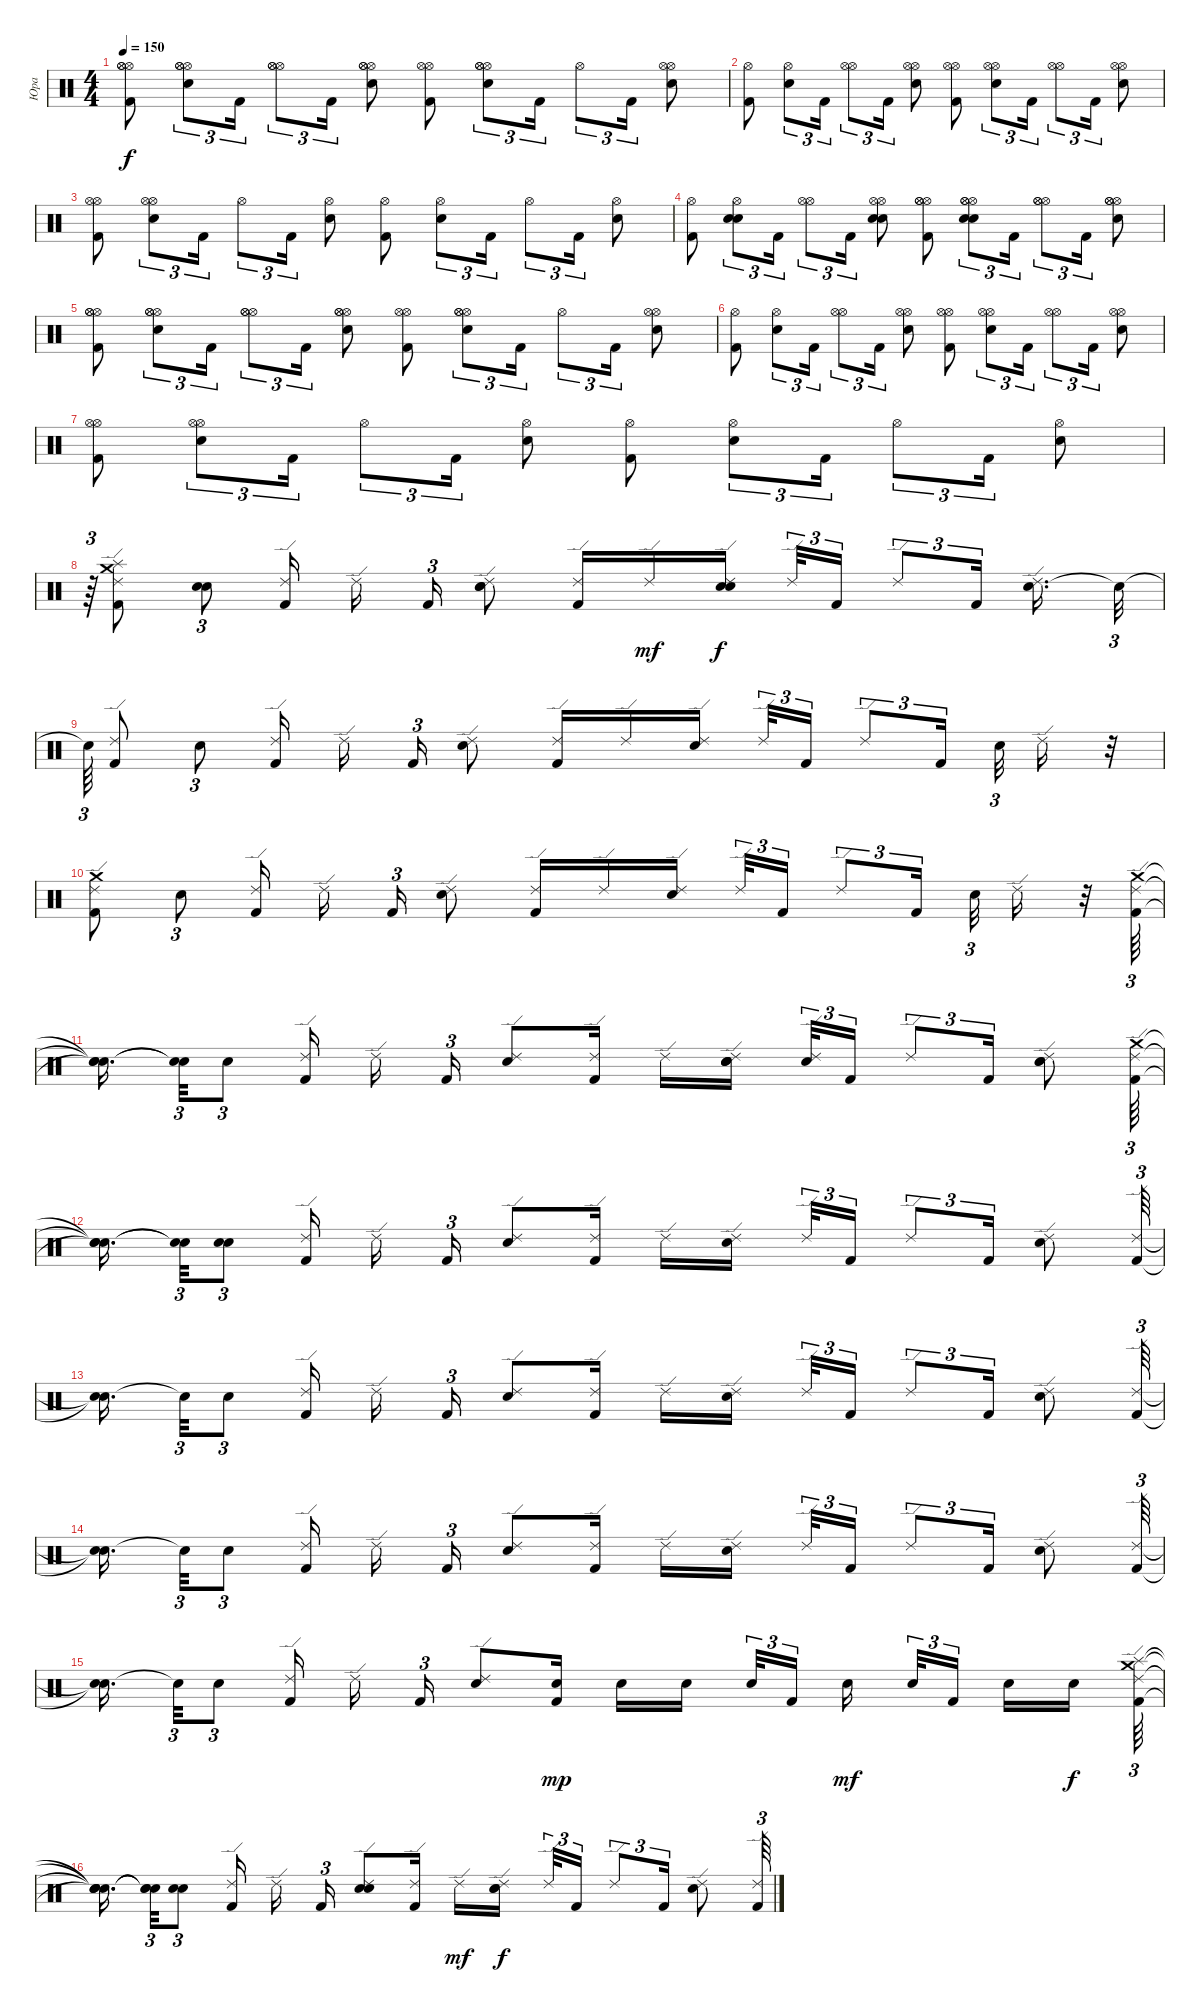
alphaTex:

\track ("Юра" "Юра") {instrument percussion}
\staff {score}
\articulation defaults
\ts (4 4)
\tempo 150
\clef neutral
\ks c
("Kick (hit) 2" "Hi-Hat (open)" "Hi-Hat (open)" "Hi-Hat (open)").8{dy f} ("Hi-Hat (open)" "Hi-Hat (open)" "Hi-Hat (open)" "Electric Snare (hit)").8{tu (3 2)} "Kick (hit) 2".16{tu (3 2)} ("Hi-Hat (open)" "Hi-Hat (open)" "Hi-Hat (open)").8{tu (3 2)} "Kick (hit) 2".16{tu (3 2)} ("Hi-Hat (open)" "Hi-Hat (open)" "Hi-Hat (open)" "Electric Snare (hit)").8 ("Kick (hit) 2" "Hi-Hat (open)" "Hi-Hat (open)").8 ("Electric Snare (hit)" "Hi-Hat (open)" "Hi-Hat (open)" "Hi-Hat (open)").8{tu (3 2)} "Kick (hit) 2".16{tu (3 2)} "Hi-Hat (open)".8{tu (3 2)} "Kick (hit) 2".16{tu (3 2)} ("Hi-Hat (open)" "Hi-Hat (open)" "Electric Snare (hit)").8 |
("Kick (hit) 2" "Hi-Hat (open)").8 ("Electric Snare (hit)" "Hi-Hat (open)").8{tu (3 2)} "Kick (hit) 2".16{tu (3 2)} ("Hi-Hat (open)" "Hi-Hat (open)").8{tu (3 2)} "Kick (hit) 2".16{tu (3 2)} ("Hi-Hat (open)" "Electric Snare (hit)" "Hi-Hat (open)").8 ("Kick (hit) 2" "Hi-Hat (open)" "Hi-Hat (open)").8 ("Hi-Hat (open)" "Hi-Hat (open)" "Electric Snare (hit)").8{tu (3 2)} "Kick (hit) 2".16{tu (3 2)} ("Hi-Hat (open)" "Hi-Hat (open)").8{tu (3 2)} "Kick (hit) 2".16{tu (3 2)} ("Hi-Hat (open)" "Electric Snare (hit)" "Hi-Hat (open)").8 |
("Kick (hit) 2" "Hi-Hat (open)" "Hi-Hat (open)").8 ("Electric Snare (hit)" "Hi-Hat (open)" "Hi-Hat (open)").8{tu (3 2)} "Kick (hit) 2".16{tu (3 2)} "Hi-Hat (open)".8{tu (3 2)} "Kick (hit) 2".16{tu (3 2)} ("Electric Snare (hit)" "Hi-Hat (open)").8 ("Hi-Hat (open)" "Kick (hit) 2").8 ("Hi-Hat (open)" "Electric Snare (hit)").8{tu (3 2)} "Kick (hit) 2".16{tu (3 2)} "Hi-Hat (open)".8{tu (3 2)} "Kick (hit) 2".16{tu (3 2)} ("Electric Snare (hit)" "Hi-Hat (open)").8 |
("Kick (hit) 2" "Hi-Hat (open)").8 ("Electric Snare (hit)" "Hi-Hat (open)" "Electric Snare (hit)").8{tu (3 2)} "Kick (hit) 2".16{tu (3 2)} ("Hi-Hat (open)" "Hi-Hat (open)").8{tu (3 2)} "Kick (hit) 2".16{tu (3 2)} ("Hi-Hat (open)" "Hi-Hat (open)" "Electric Snare (hit)" "Electric Snare (hit)").8 ("Kick (hit) 2" "Hi-Hat (open)" "Hi-Hat (open)" "Hi-Hat (open)").8 ("Hi-Hat (open)" "Hi-Hat (open)" "Hi-Hat (open)" "Electric Snare (hit)" "Electric Snare (hit)").8{tu (3 2)} "Kick (hit) 2".16{tu (3 2)} ("Hi-Hat (open)" "Hi-Hat (open)" "Hi-Hat (open)").8{tu (3 2)} "Kick (hit) 2".16{tu (3 2)} ("Hi-Hat (open)" "Electric Snare (hit)" "Hi-Hat (open)" "Hi-Hat (open)").8 |
("Kick (hit) 2" "Hi-Hat (open)" "Hi-Hat (open)" "Hi-Hat (open)").8 ("Hi-Hat (open)" "Hi-Hat (open)" "Hi-Hat (open)" "Electric Snare (hit)").8{tu (3 2)} "Kick (hit) 2".16{tu (3 2)} ("Hi-Hat (open)" "Hi-Hat (open)" "Hi-Hat (open)").8{tu (3 2)} "Kick (hit) 2".16{tu (3 2)} ("Hi-Hat (open)" "Hi-Hat (open)" "Hi-Hat (open)" "Electric Snare (hit)").8 ("Kick (hit) 2" "Hi-Hat (open)" "Hi-Hat (open)").8 ("Electric Snare (hit)" "Hi-Hat (open)" "Hi-Hat (open)" "Hi-Hat (open)").8{tu (3 2)} "Kick (hit) 2".16{tu (3 2)} "Hi-Hat (open)".8{tu (3 2)} "Kick (hit) 2".16{tu (3 2)} ("Hi-Hat (open)" "Hi-Hat (open)" "Electric Snare (hit)").8 |
("Kick (hit) 2" "Hi-Hat (open)").8 ("Electric Snare (hit)" "Hi-Hat (open)").8{tu (3 2)} "Kick (hit) 2".16{tu (3 2)} ("Hi-Hat (open)" "Hi-Hat (open)").8{tu (3 2)} "Kick (hit) 2".16{tu (3 2)} ("Hi-Hat (open)" "Electric Snare (hit)" "Hi-Hat (open)").8 ("Kick (hit) 2" "Hi-Hat (open)" "Hi-Hat (open)").8 ("Hi-Hat (open)" "Hi-Hat (open)" "Electric Snare (hit)").8{tu (3 2)} "Kick (hit) 2".16{tu (3 2)} ("Hi-Hat (open)" "Hi-Hat (open)").8{tu (3 2)} "Kick (hit) 2".16{tu (3 2)} ("Hi-Hat (open)" "Electric Snare (hit)" "Hi-Hat (open)").8 |
("Kick (hit) 2" "Hi-Hat (open)" "Hi-Hat (open)").8 ("Electric Snare (hit)" "Hi-Hat (open)" "Hi-Hat (open)").8{tu (3 2)} "Kick (hit) 2".16{tu (3 2)} "Hi-Hat (open)".8{tu (3 2)} "Kick (hit) 2".16{tu (3 2)} ("Electric Snare (hit)" "Hi-Hat (open)").8 ("Hi-Hat (open)" "Kick (hit) 2").8 ("Hi-Hat (open)" "Electric Snare (hit)").8{tu (3 2)} "Kick (hit) 2".16{tu (3 2)} "Hi-Hat (open)".8{tu (3 2)} "Kick (hit) 2".16{tu (3 2)} ("Electric Snare (hit)" "Hi-Hat (open)").8 |
r.64{tu (3 2)} ("Ride (edge) 2" "Crash medium (hit)" "Kick (hit) 2" "Splash (hit)").8 ("Electric Snare (hit)" "Electric Snare (hit)").8{tu (3 2)} ("Ride (edge) 2" "Kick (hit) 2").16 "Ride (edge) 2".16{beam splitsecondary} "Kick (hit) 2".16{tu (3 2)} ("Ride (edge) 2" "Electric Snare (hit)" "Electric Snare (hit)").8 ("Ride (edge) 2" "Kick (hit) 2").16 "Ride (edge) 2".16{dy mf} ("Ride (edge) 2" "Electric Snare (hit)" "Electric Snare (hit)").16{dy f beam splitsecondary} "Ride (edge) 2".32{tu (3 2)} "Kick (hit) 2".16{tu (3 2)} "Ride (edge) 2".8{tu (3 2)} "Kick (hit) 2".16{tu (3 2) beam splitsecondary} ("Electric Snare (hit)" "Ride (edge) 2").16{d} "Snare (hit)"{t}.32{tu (3 2)} |
"Snare (hit)"{t}.64{tu (3 2)} ("Ride (edge) 2" "Kick (hit) 2").8 "Electric Snare (hit)".8{tu (3 2)} ("Ride (edge) 2" "Kick (hit) 2").16 "Ride (edge) 2".16{beam splitsecondary} "Kick (hit) 2".16{tu (3 2)} ("Ride (edge) 2" "Electric Snare (hit)").8 ("Ride (edge) 2" "Kick (hit) 2").16 "Ride (edge) 2".16 ("Ride (edge) 2" "Electric Snare (hit)").16{beam splitsecondary} "Ride (edge) 2".32{tu (3 2)} "Kick (hit) 2".16{tu (3 2)} "Ride (edge) 2".8{tu (3 2)} "Kick (hit) 2".16{tu (3 2) beam splitsecondary} "Electric Snare (hit)".32{tu (3 2)} "Ride (edge) 2".16 r.32 |
("Ride (edge) 2" "Crash medium (hit)" "Kick (hit) 2").8 "Electric Snare (hit)".8{tu (3 2)} ("Kick (hit) 2" "Ride (edge) 2").16 "Ride (edge) 2".16{beam splitsecondary} "Kick (hit) 2".16{tu (3 2)} ("Ride (edge) 2" "Electric Snare (hit)").8 ("Ride (edge) 2" "Kick (hit) 2").16 "Ride (edge) 2".16 ("Ride (edge) 2" "Electric Snare (hit)").16{beam splitsecondary} "Ride (edge) 2".32{tu (3 2)} "Kick (hit) 2".16{tu (3 2)} "Ride (edge) 2".8{tu (3 2)} "Kick (hit) 2".16{tu (3 2) beam splitsecondary} "Electric Snare (hit)".32{tu (3 2)} "Ride (edge) 2".16 r.32 ("Ride (edge) 2" "Crash medium (hit)" "Kick (hit) 2").64{tu (3 2)} |
("Snare (hit)"{t} "Snare (hit)"{t} "Snare (hit)"{t}).16{d beam splitsecondary} ("Snare (hit)"{t} "Snare (hit)"{t}).32{tu (3 2)} "Electric Snare (hit)".8{tu (3 2)} ("Kick (hit) 2" "Ride (edge) 2").16 "Ride (edge) 2".16{beam splitsecondary} "Kick (hit) 2".16{tu (3 2)} ("Ride (edge) 2" "Electric Snare (hit)").8 ("Ride (edge) 2" "Kick (hit) 2").16 "Ride (edge) 2".16 ("Ride (edge) 2" "Electric Snare (hit)" "Electric Snare (hit)" "Electric Snare (hit)").16{beam splitsecondary} ("Ride (edge) 2" "Electric Snare (hit)").32{tu (3 2)} "Kick (hit) 2".16{tu (3 2)} "Ride (edge) 2".8{tu (3 2)} "Kick (hit) 2".16{tu (3 2)} ("Electric Snare (hit)" "Electric Snare (hit)" "Ride (edge) 2").8 ("Ride (edge) 2" "Kick (hit) 2" "Crash medium (hit)").64{tu (3 2)} |
("Snare (hit)"{t} "Snare (hit)"{t} "Snare (hit)"{t}).16{d beam splitsecondary} ("Snare (hit)"{t} "Snare (hit)"{t}).32{tu (3 2)} ("Electric Snare (hit)" "Electric Snare (hit)").8{tu (3 2)} ("Ride (edge) 2" "Kick (hit) 2").16 "Ride (edge) 2".16{beam splitsecondary} "Kick (hit) 2".16{tu (3 2)} ("Ride (edge) 2" "Electric Snare (hit)").8 ("Ride (edge) 2" "Kick (hit) 2").16 "Ride (edge) 2".16 ("Ride (edge) 2" "Electric Snare (hit)").16{beam splitsecondary} "Ride (edge) 2".32{tu (3 2)} "Kick (hit) 2".16{tu (3 2)} "Ride (edge) 2".8{tu (3 2)} "Kick (hit) 2".16{tu (3 2)} ("Ride (edge) 2" "Electric Snare (hit)").8 ("Ride (edge) 2" "Kick (hit) 2").64{tu (3 2)} |
("Snare (hit)"{t} "Snare (hit)"{t}).16{d beam splitsecondary} "Snare (hit)"{t}.32{tu (3 2)} "Electric Snare (hit)".8{tu (3 2)} ("Ride (edge) 2" "Kick (hit) 2").16 "Ride (edge) 2".16{beam splitsecondary} "Kick (hit) 2".16{tu (3 2)} ("Electric Snare (hit)" "Ride (edge) 2").8 ("Ride (edge) 2" "Kick (hit) 2").16 "Ride (edge) 2".16 ("Ride (edge) 2" "Electric Snare (hit)").16{beam splitsecondary} "Ride (edge) 2".32{tu (3 2)} "Kick (hit) 2".16{tu (3 2)} "Ride (edge) 2".8{tu (3 2)} "Kick (hit) 2".16{tu (3 2)} ("Ride (edge) 2" "Electric Snare (hit)").8 ("Kick (hit) 2" "Ride (edge) 2").64{tu (3 2)} |
("Snare (hit)"{t} "Snare (hit)"{t}).16{d beam splitsecondary} "Snare (hit)"{t}.32{tu (3 2)} "Electric Snare (hit)".8{tu (3 2)} ("Kick (hit) 2" "Ride (edge) 2").16 "Ride (edge) 2".16{beam splitsecondary} "Kick (hit) 2".16{tu (3 2)} ("Electric Snare (hit)" "Ride (edge) 2").8 ("Kick (hit) 2" "Ride (edge) 2").16 "Ride (edge) 2".16 ("Electric Snare (hit)" "Ride (edge) 2").16{beam splitsecondary} "Ride (edge) 2".32{tu (3 2)} "Kick (hit) 2".16{tu (3 2)} "Ride (edge) 2".8{tu (3 2)} "Kick (hit) 2".16{tu (3 2)} ("Electric Snare (hit)" "Ride (edge) 2").8 ("Kick (hit) 2" "Ride (edge) 2").64{tu (3 2)} |
("Snare (hit)"{t} "Snare (hit)"{t}).16{d beam splitsecondary} "Snare (hit)"{t}.32{tu (3 2)} "Electric Snare (hit)".8{tu (3 2)} ("Kick (hit) 2" "Ride (edge) 2").16 "Ride (edge) 2".16{beam splitsecondary} "Kick (hit) 2".16{tu (3 2)} ("Electric Snare (hit)" "Ride (edge) 2").8 ("Electric Snare (hit)" "Kick (hit) 2").16{dy mp} "Electric Snare (hit)".16 "Electric Snare (hit)".16{beam splitsecondary} "Electric Snare (hit)".32{tu (3 2)} "Kick (hit) 2".16{tu (3 2) beam splitsecondary} "Electric Snare (hit)".16{dy mf} "Electric Snare (hit)".32{tu (3 2)} "Kick (hit) 2".16{tu (3 2) beam splitsecondary} "Electric Snare (hit)".16 "Electric Snare (hit)".16{dy f beam splitsecondary} ("Kick (hit) 2" "Splash (hit)" "Ride (edge) 2" "Crash medium (hit)").64{tu (3 2)} |
("Snare (hit)"{t} "Snare (hit)"{t} "Snare (hit)"{t} "Snare (hit)"{t}).16{d beam splitsecondary} ("Snare (hit)"{t} "Snare (hit)"{t} "Snare (hit)"{t}).32{tu (3 2)} ("Electric Snare (hit)" "Electric Snare (hit)").8{tu (3 2)} ("Kick (hit) 2" "Ride (edge) 2").16 "Ride (edge) 2".16{beam splitsecondary} "Kick (hit) 2".16{tu (3 2)} ("Electric Snare (hit)" "Electric Snare (hit)" "Ride (edge) 2").8 ("Kick (hit) 2" "Ride (edge) 2").16 "Ride (edge) 2".16{dy mf} ("Electric Snare (hit)" "Electric Snare (hit)" "Ride (edge) 2").16{dy f beam splitsecondary} "Ride (edge) 2".32{tu (3 2)} "Kick (hit) 2".16{tu (3 2)} "Ride (edge) 2".8{tu (3 2)} "Kick (hit) 2".16{tu (3 2)} ("Electric Snare (hit)" "Ride (edge) 2").8 ("Ride (edge) 2" "Kick (hit) 2").64{tu (3 2)}
